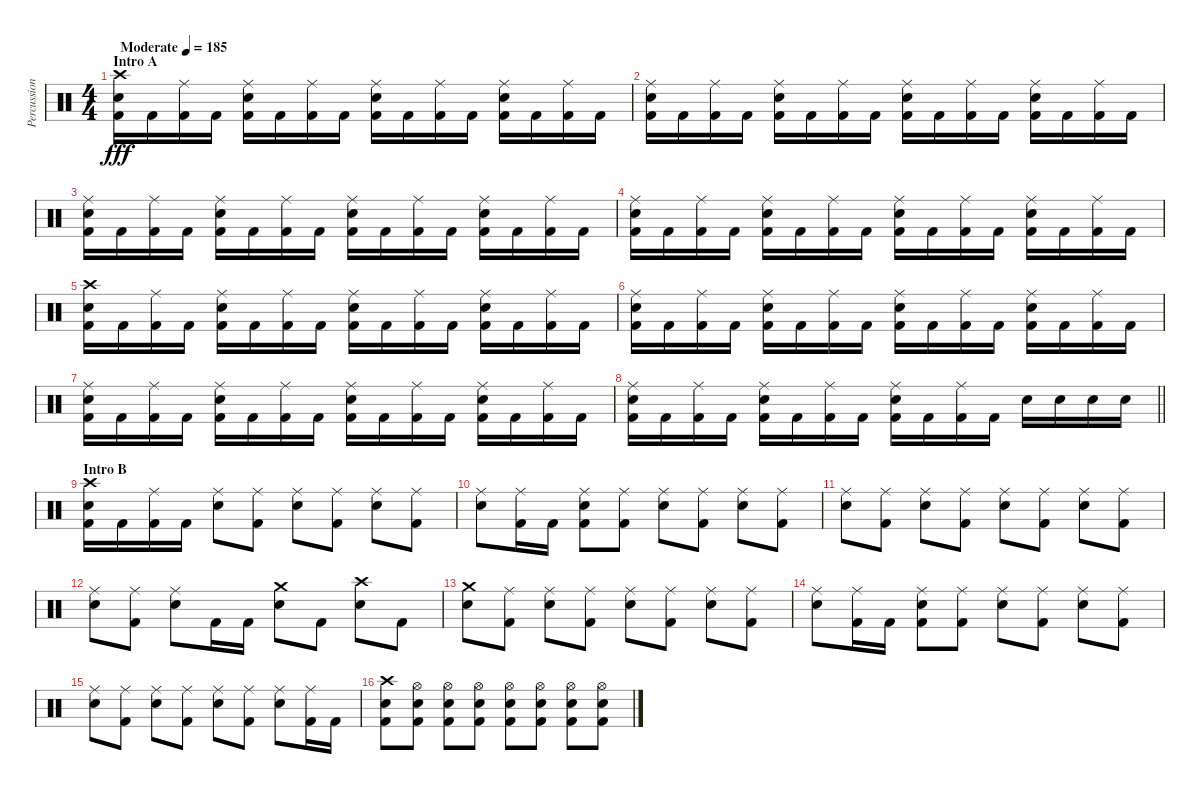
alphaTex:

\track ("Percussion" "Percussion") {instrument percussion}
\staff {score}
\articulation defaults
\ts (4 4)
\section ("" "Intro A")
\tempo (185 "Moderate")
\clef neutral
\ks c
("Crash high (hit)" "Electric Snare (hit)" "Kick (hit) 2").16{dy fff} "Kick (hit) 2".16 ("Ride (middle)" "Kick (hit) 2").16 "Kick (hit) 2".16 ("Ride (middle)" "Electric Snare (hit)" "Kick (hit) 2").16 "Kick (hit) 2".16 ("Ride (middle)" "Kick (hit) 2").16 "Kick (hit) 2".16 ("Ride (middle)" "Electric Snare (hit)" "Kick (hit) 2").16 "Kick (hit) 2".16 ("Ride (middle)" "Kick (hit) 2").16 "Kick (hit) 2".16 ("Ride (middle)" "Electric Snare (hit)" "Kick (hit) 2").16 "Kick (hit) 2".16 ("Ride (middle)" "Kick (hit) 2").16 "Kick (hit) 2".16 |
("Ride (middle)" "Electric Snare (hit)" "Kick (hit) 2").16 "Kick (hit) 2".16 ("Ride (middle)" "Kick (hit) 2").16 "Kick (hit) 2".16 ("Ride (middle)" "Electric Snare (hit)" "Kick (hit) 2").16 "Kick (hit) 2".16 ("Ride (middle)" "Kick (hit) 2").16 "Kick (hit) 2".16 ("Ride (middle)" "Electric Snare (hit)" "Kick (hit) 2").16 "Kick (hit) 2".16 ("Ride (middle)" "Kick (hit) 2").16 "Kick (hit) 2".16 ("Ride (middle)" "Electric Snare (hit)" "Kick (hit) 2").16 "Kick (hit) 2".16 ("Ride (middle)" "Kick (hit) 2").16 "Kick (hit) 2".16 |
("Ride (middle)" "Electric Snare (hit)" "Kick (hit) 2").16 "Kick (hit) 2".16 ("Ride (middle)" "Kick (hit) 2").16 "Kick (hit) 2".16 ("Ride (middle)" "Electric Snare (hit)" "Kick (hit) 2").16 "Kick (hit) 2".16 ("Ride (middle)" "Kick (hit) 2").16 "Kick (hit) 2".16 ("Ride (middle)" "Electric Snare (hit)" "Kick (hit) 2").16 "Kick (hit) 2".16 ("Ride (middle)" "Kick (hit) 2").16 "Kick (hit) 2".16 ("Ride (middle)" "Electric Snare (hit)" "Kick (hit) 2").16 "Kick (hit) 2".16 ("Ride (middle)" "Kick (hit) 2").16 "Kick (hit) 2".16 |
("Ride (middle)" "Electric Snare (hit)" "Kick (hit) 2").16 "Kick (hit) 2".16 ("Ride (middle)" "Kick (hit) 2").16 "Kick (hit) 2".16 ("Ride (middle)" "Electric Snare (hit)" "Kick (hit) 2").16 "Kick (hit) 2".16 ("Ride (middle)" "Kick (hit) 2").16 "Kick (hit) 2".16 ("Ride (middle)" "Electric Snare (hit)" "Kick (hit) 2").16 "Kick (hit) 2".16 ("Ride (middle)" "Kick (hit) 2").16 "Kick (hit) 2".16 ("Ride (middle)" "Electric Snare (hit)" "Kick (hit) 2").16 "Kick (hit) 2".16 ("Ride (middle)" "Kick (hit) 2").16 "Kick (hit) 2".16 |
("Crash high (hit)" "Electric Snare (hit)" "Kick (hit) 2").16 "Kick (hit) 2".16 ("Ride (middle)" "Kick (hit) 2").16 "Kick (hit) 2".16 ("Ride (middle)" "Electric Snare (hit)" "Kick (hit) 2").16 "Kick (hit) 2".16 ("Ride (middle)" "Kick (hit) 2").16 "Kick (hit) 2".16 ("Ride (middle)" "Electric Snare (hit)" "Kick (hit) 2").16 "Kick (hit) 2".16 ("Ride (middle)" "Kick (hit) 2").16 "Kick (hit) 2".16 ("Ride (middle)" "Electric Snare (hit)" "Kick (hit) 2").16 "Kick (hit) 2".16 ("Ride (middle)" "Kick (hit) 2").16 "Kick (hit) 2".16 |
("Ride (middle)" "Electric Snare (hit)" "Kick (hit) 2").16 "Kick (hit) 2".16 ("Ride (middle)" "Kick (hit) 2").16 "Kick (hit) 2".16 ("Ride (middle)" "Electric Snare (hit)" "Kick (hit) 2").16 "Kick (hit) 2".16 ("Ride (middle)" "Kick (hit) 2").16 "Kick (hit) 2".16 ("Ride (middle)" "Electric Snare (hit)" "Kick (hit) 2").16 "Kick (hit) 2".16 ("Ride (middle)" "Kick (hit) 2").16 "Kick (hit) 2".16 ("Ride (middle)" "Electric Snare (hit)" "Kick (hit) 2").16 "Kick (hit) 2".16 ("Ride (middle)" "Kick (hit) 2").16 "Kick (hit) 2".16 |
("Ride (middle)" "Electric Snare (hit)" "Kick (hit) 2").16 "Kick (hit) 2".16 ("Ride (middle)" "Kick (hit) 2").16 "Kick (hit) 2".16 ("Ride (middle)" "Electric Snare (hit)" "Kick (hit) 2").16 "Kick (hit) 2".16 ("Ride (middle)" "Kick (hit) 2").16 "Kick (hit) 2".16 ("Ride (middle)" "Electric Snare (hit)" "Kick (hit) 2").16 "Kick (hit) 2".16 ("Ride (middle)" "Kick (hit) 2").16 "Kick (hit) 2".16 ("Ride (middle)" "Electric Snare (hit)" "Kick (hit) 2").16 "Kick (hit) 2".16 ("Ride (middle)" "Kick (hit) 2").16 "Kick (hit) 2".16 |
\barLineRight lightlight
("Ride (middle)" "Electric Snare (hit)" "Kick (hit) 2").16 "Kick (hit) 2".16 ("Ride (middle)" "Kick (hit) 2").16 "Kick (hit) 2".16 ("Ride (middle)" "Electric Snare (hit)" "Kick (hit) 2").16 "Kick (hit) 2".16 ("Ride (middle)" "Kick (hit) 2").16 "Kick (hit) 2".16 ("Ride (middle)" "Electric Snare (hit)" "Kick (hit) 2").16 "Kick (hit) 2".16 ("Ride (middle)" "Kick (hit) 2").16 "Kick (hit) 2".16 "Electric Snare (hit)".16 "Electric Snare (hit)".16 "Electric Snare (hit)".16 "Electric Snare (hit)".16 |
\section ("" "Intro B")
("Crash high (hit)" "Electric Snare (hit)" "Kick (hit) 2").16 "Kick (hit) 2".16 ("Ride (middle)" "Kick (hit) 2").16 "Kick (hit) 2".16 ("Ride (middle)" "Electric Snare (hit)").8 ("Ride (middle)" "Kick (hit) 2").8 ("Ride (middle)" "Electric Snare (hit)").8 ("Ride (middle)" "Kick (hit) 2").8 ("Ride (middle)" "Electric Snare (hit)").8 ("Ride (middle)" "Kick (hit) 2").8 |
("Ride (middle)" "Electric Snare (hit)").8 ("Ride (middle)" "Kick (hit) 2").16 "Kick (hit) 2".16 ("Ride (middle)" "Electric Snare (hit)" "Kick (hit) 2").8 ("Ride (middle)" "Kick (hit) 2").8 ("Ride (middle)" "Electric Snare (hit)").8 ("Ride (middle)" "Kick (hit) 2").8 ("Ride (middle)" "Electric Snare (hit)").8 ("Ride (middle)" "Kick (hit) 2").8 |
("Ride (middle)" "Electric Snare (hit)").8 ("Ride (middle)" "Kick (hit) 2").8 ("Ride (middle)" "Electric Snare (hit)").8 ("Ride (middle)" "Kick (hit) 2").8 ("Ride (middle)" "Electric Snare (hit)").8 ("Ride (middle)" "Kick (hit) 2").8 ("Ride (middle)" "Electric Snare (hit)").8 ("Ride (middle)" "Kick (hit) 2").8 |
("Ride (middle)" "Electric Snare (hit)").8 ("Ride (middle)" "Kick (hit) 2").8 ("Ride (middle)" "Electric Snare (hit)").8 "Kick (hit) 2".16 "Kick (hit) 2".16 ("Crash medium (hit)" "Electric Snare (hit)").8 "Kick (hit) 2".8 ("Crash high (hit)" "Electric Snare (hit)").8 "Kick (hit) 2".8 |
("Crash medium (hit)" "Electric Snare (hit)").8 ("Ride (middle)" "Kick (hit) 2").8 ("Ride (middle)" "Electric Snare (hit)").8 ("Ride (middle)" "Kick (hit) 2").8 ("Ride (middle)" "Electric Snare (hit)").8 ("Ride (middle)" "Kick (hit) 2").8 ("Ride (middle)" "Electric Snare (hit)").8 ("Ride (middle)" "Kick (hit) 2").8 |
("Ride (middle)" "Electric Snare (hit)").8 ("Ride (middle)" "Kick (hit) 2").16 "Kick (hit) 2".16 ("Ride (middle)" "Electric Snare (hit)" "Kick (hit) 2").8 ("Ride (middle)" "Kick (hit) 2").8 ("Ride (middle)" "Electric Snare (hit)").8 ("Ride (middle)" "Kick (hit) 2").8 ("Ride (middle)" "Electric Snare (hit)").8 ("Ride (middle)" "Kick (hit) 2").8 |
("Ride (middle)" "Electric Snare (hit)").8 ("Ride (middle)" "Kick (hit) 2").8 ("Ride (middle)" "Electric Snare (hit)").8 ("Ride (middle)" "Kick (hit) 2").8 ("Ride (middle)" "Electric Snare (hit)").8 ("Ride (middle)" "Kick (hit) 2").8 ("Ride (middle)" "Electric Snare (hit)").8 ("Ride (middle)" "Kick (hit) 2").16 "Kick (hit) 2".16 |
("Crash high (hit)" "Electric Snare (hit)" "Kick (hit) 2").8 ("Hi-Hat (open)" "Electric Snare (hit)" "Kick (hit) 2").8 ("Hi-Hat (open)" "Electric Snare (hit)" "Kick (hit) 2").8 ("Hi-Hat (open)" "Electric Snare (hit)" "Kick (hit) 2").8 ("Hi-Hat (open)" "Electric Snare (hit)" "Kick (hit) 2").8 ("Hi-Hat (open)" "Electric Snare (hit)" "Kick (hit) 2").8 ("Hi-Hat (open)" "Electric Snare (hit)" "Kick (hit) 2").8 ("Hi-Hat (open)" "Electric Snare (hit)" "Kick (hit) 2").8
